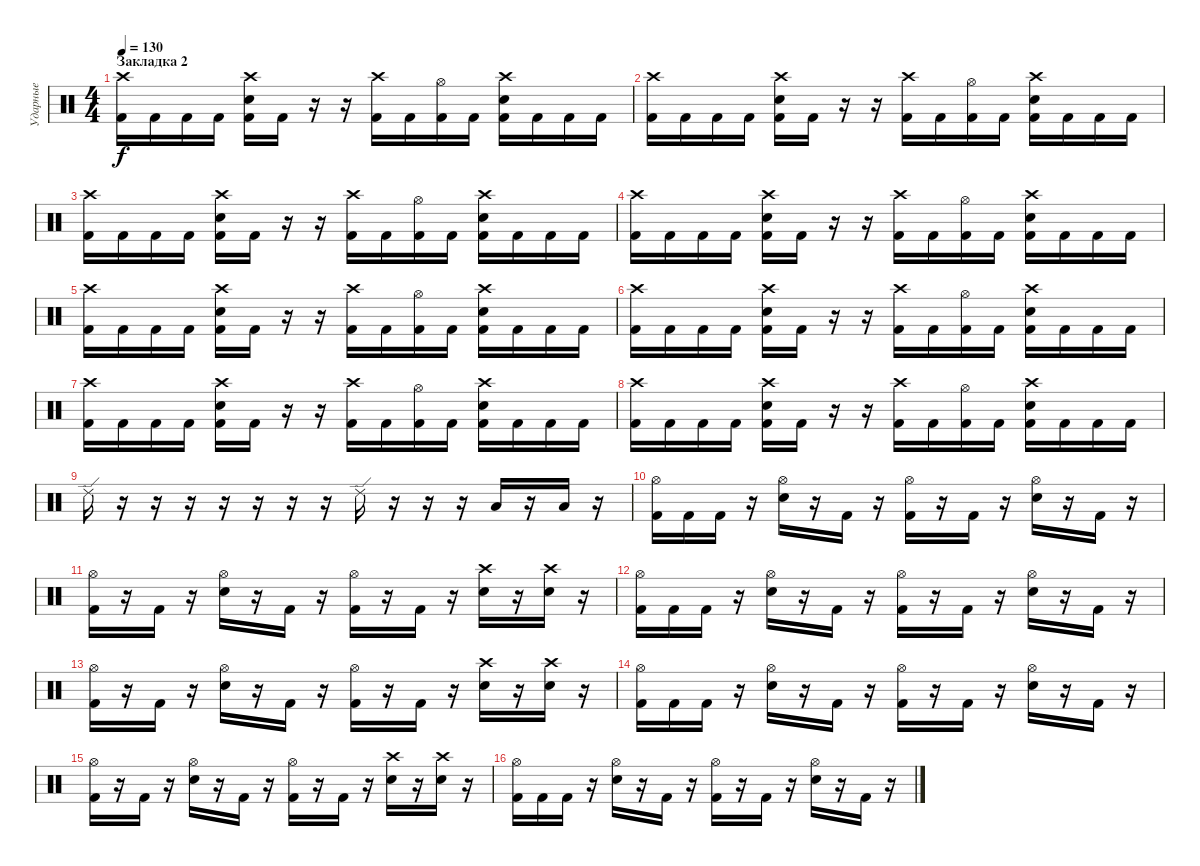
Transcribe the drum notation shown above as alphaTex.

\track ("Ударные" "Ударные") {instrument percussion}
\staff {score}
\articulation defaults
\ts (4 4)
\section ("" "Закладка 2")
\tempo 130
\clef neutral
\ks c
("Crash high (hit)" "Kick (hit) 2").16{dy f} "Kick (hit) 2".16 "Kick (hit) 2".16 "Kick (hit) 2".16 ("Crash high (hit)" "Electric Snare (hit)" "Kick (hit) 2").16 "Kick (hit) 2".16 r.16 r.16 ("Crash high (hit)" "Kick (hit) 2").16 "Kick (hit) 2".16 ("Hi-Hat (open)" "Kick (hit) 2").16 "Kick (hit) 2".16 ("Crash high (hit)" "Electric Snare (hit)" "Kick (hit) 2").16 "Kick (hit) 2".16 "Kick (hit) 2".16 "Kick (hit) 2".16 |
("Crash high (hit)" "Kick (hit) 2").16 "Kick (hit) 2".16 "Kick (hit) 2".16 "Kick (hit) 2".16 ("Crash high (hit)" "Electric Snare (hit)" "Kick (hit) 2").16 "Kick (hit) 2".16 r.16 r.16 ("Crash high (hit)" "Kick (hit) 2").16 "Kick (hit) 2".16 ("Hi-Hat (open)" "Kick (hit) 2").16 "Kick (hit) 2".16 ("Crash high (hit)" "Electric Snare (hit)" "Kick (hit) 2").16 "Kick (hit) 2".16 "Kick (hit) 2".16 "Kick (hit) 2".16 |
("Crash high (hit)" "Kick (hit) 2").16 "Kick (hit) 2".16 "Kick (hit) 2".16 "Kick (hit) 2".16 ("Crash high (hit)" "Electric Snare (hit)" "Kick (hit) 2").16 "Kick (hit) 2".16 r.16 r.16 ("Crash high (hit)" "Kick (hit) 2").16 "Kick (hit) 2".16 ("Hi-Hat (open)" "Kick (hit) 2").16 "Kick (hit) 2".16 ("Crash high (hit)" "Electric Snare (hit)" "Kick (hit) 2").16 "Kick (hit) 2".16 "Kick (hit) 2".16 "Kick (hit) 2".16 |
("Crash high (hit)" "Kick (hit) 2").16 "Kick (hit) 2".16 "Kick (hit) 2".16 "Kick (hit) 2".16 ("Crash high (hit)" "Electric Snare (hit)" "Kick (hit) 2").16 "Kick (hit) 2".16 r.16 r.16 ("Crash high (hit)" "Kick (hit) 2").16 "Kick (hit) 2".16 ("Hi-Hat (open)" "Kick (hit) 2").16 "Kick (hit) 2".16 ("Crash high (hit)" "Electric Snare (hit)" "Kick (hit) 2").16 "Kick (hit) 2".16 "Kick (hit) 2".16 "Kick (hit) 2".16 |
("Crash high (hit)" "Kick (hit) 2").16 "Kick (hit) 2".16 "Kick (hit) 2".16 "Kick (hit) 2".16 ("Crash high (hit)" "Electric Snare (hit)" "Kick (hit) 2").16 "Kick (hit) 2".16 r.16 r.16 ("Crash high (hit)" "Kick (hit) 2").16 "Kick (hit) 2".16 ("Hi-Hat (open)" "Kick (hit) 2").16 "Kick (hit) 2".16 ("Crash high (hit)" "Electric Snare (hit)" "Kick (hit) 2").16 "Kick (hit) 2".16 "Kick (hit) 2".16 "Kick (hit) 2".16 |
("Crash high (hit)" "Kick (hit) 2").16 "Kick (hit) 2".16 "Kick (hit) 2".16 "Kick (hit) 2".16 ("Crash high (hit)" "Electric Snare (hit)" "Kick (hit) 2").16 "Kick (hit) 2".16 r.16 r.16 ("Crash high (hit)" "Kick (hit) 2").16 "Kick (hit) 2".16 ("Hi-Hat (open)" "Kick (hit) 2").16 "Kick (hit) 2".16 ("Crash high (hit)" "Electric Snare (hit)" "Kick (hit) 2").16 "Kick (hit) 2".16 "Kick (hit) 2".16 "Kick (hit) 2".16 |
("Crash high (hit)" "Kick (hit) 2").16 "Kick (hit) 2".16 "Kick (hit) 2".16 "Kick (hit) 2".16 ("Crash high (hit)" "Electric Snare (hit)" "Kick (hit) 2").16 "Kick (hit) 2".16 r.16 r.16 ("Crash high (hit)" "Kick (hit) 2").16 "Kick (hit) 2".16 ("Hi-Hat (open)" "Kick (hit) 2").16 "Kick (hit) 2".16 ("Crash high (hit)" "Electric Snare (hit)" "Kick (hit) 2").16 "Kick (hit) 2".16 "Kick (hit) 2".16 "Kick (hit) 2".16 |
("Crash high (hit)" "Kick (hit) 2").16 "Kick (hit) 2".16 "Kick (hit) 2".16 "Kick (hit) 2".16 ("Crash high (hit)" "Electric Snare (hit)" "Kick (hit) 2").16 "Kick (hit) 2".16 r.16 r.16 ("Crash high (hit)" "Kick (hit) 2").16 "Kick (hit) 2".16 ("Hi-Hat (open)" "Kick (hit) 2").16 "Kick (hit) 2".16 ("Crash high (hit)" "Electric Snare (hit)" "Kick (hit) 2").16 "Kick (hit) 2".16 "Kick (hit) 2".16 "Kick (hit) 2".16 |
"Ride (edge) 2".16 r.16 r.16 r.16 r.16 r.16 r.16 r.16 "Ride (edge) 2".16 r.16 r.16 r.16 "Low Tom (hit)".16 r.16 "Low Tom (hit)".16 r.16 |
("Hi-Hat (open)" "Kick (hit) 2").16 "Kick (hit) 2".16 "Kick (hit) 2".16 r.16 ("Hi-Hat (open)" "Electric Snare (hit)").16 r.16 "Kick (hit) 2".16 r.16 ("Hi-Hat (open)" "Kick (hit) 2").16 r.16 "Kick (hit) 2".16 r.16 ("Hi-Hat (open)" "Electric Snare (hit)").16 r.16 "Kick (hit) 2".16 r.16 |
("Hi-Hat (open)" "Kick (hit) 2").16 r.16 "Kick (hit) 2".16 r.16 ("Hi-Hat (open)" "Electric Snare (hit)").16 r.16 "Kick (hit) 2".16 r.16 ("Hi-Hat (open)" "Kick (hit) 2").16 r.16 "Kick (hit) 2".16 r.16 ("Crash high (hit)" "Electric Snare (hit)").16 r.16 ("Crash high (hit)" "Electric Snare (hit)").16 r.16 |
("Hi-Hat (open)" "Kick (hit) 2").16 "Kick (hit) 2".16 "Kick (hit) 2".16 r.16 ("Hi-Hat (open)" "Electric Snare (hit)").16 r.16 "Kick (hit) 2".16 r.16 ("Hi-Hat (open)" "Kick (hit) 2").16 r.16 "Kick (hit) 2".16 r.16 ("Hi-Hat (open)" "Electric Snare (hit)").16 r.16 "Kick (hit) 2".16 r.16 |
("Hi-Hat (open)" "Kick (hit) 2").16 r.16 "Kick (hit) 2".16 r.16 ("Hi-Hat (open)" "Electric Snare (hit)").16 r.16 "Kick (hit) 2".16 r.16 ("Hi-Hat (open)" "Kick (hit) 2").16 r.16 "Kick (hit) 2".16 r.16 ("Crash high (hit)" "Electric Snare (hit)").16 r.16 ("Crash high (hit)" "Electric Snare (hit)").16 r.16 |
("Hi-Hat (open)" "Kick (hit) 2").16 "Kick (hit) 2".16 "Kick (hit) 2".16 r.16 ("Hi-Hat (open)" "Electric Snare (hit)").16 r.16 "Kick (hit) 2".16 r.16 ("Hi-Hat (open)" "Kick (hit) 2").16 r.16 "Kick (hit) 2".16 r.16 ("Hi-Hat (open)" "Electric Snare (hit)").16 r.16 "Kick (hit) 2".16 r.16 |
("Hi-Hat (open)" "Kick (hit) 2").16 r.16 "Kick (hit) 2".16 r.16 ("Hi-Hat (open)" "Electric Snare (hit)").16 r.16 "Kick (hit) 2".16 r.16 ("Hi-Hat (open)" "Kick (hit) 2").16 r.16 "Kick (hit) 2".16 r.16 ("Crash high (hit)" "Electric Snare (hit)").16 r.16 ("Crash high (hit)" "Electric Snare (hit)").16 r.16 |
("Hi-Hat (open)" "Kick (hit) 2").16 "Kick (hit) 2".16 "Kick (hit) 2".16 r.16 ("Hi-Hat (open)" "Electric Snare (hit)").16 r.16 "Kick (hit) 2".16 r.16 ("Hi-Hat (open)" "Kick (hit) 2").16 r.16 "Kick (hit) 2".16 r.16 ("Hi-Hat (open)" "Electric Snare (hit)").16 r.16 "Kick (hit) 2".16 r.16
